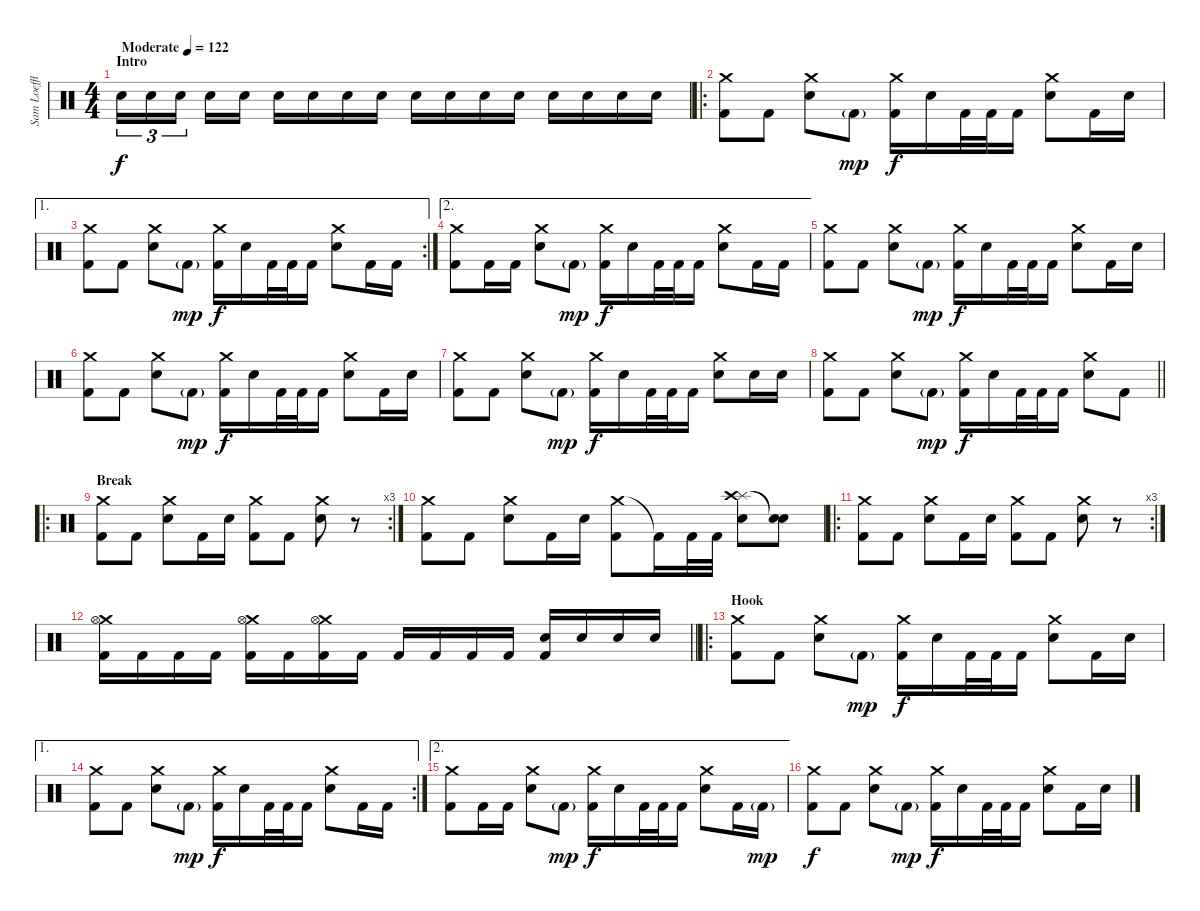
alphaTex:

\track ("Sam Loeffler- Drums" "Sam Loeffl") {instrument percussion}
\staff {score}
\articulation defaults
\ts (4 4)
\section ("" "Intro")
\tempo (122 "Moderate")
\clef neutral
\ks c "Electric Snare (hit)".16{tu (3 2) dy f} "Electric Snare (hit)".16{tu (3 2)} "Electric Snare (hit)".16{tu (3 2) beam splitsecondary} "Electric Snare (hit)".16 "Electric Snare (hit)".16 "Electric Snare (hit)".16 "Electric Snare (hit)".16 "Electric Snare (hit)".16 "Electric Snare (hit)".16 "Electric Snare (hit)".16 "Electric Snare (hit)".16 "Electric Snare (hit)".16 "Electric Snare (hit)".16 "Electric Snare (hit)".16 "Electric Snare (hit)".16 "Electric Snare (hit)".16 "Electric Snare (hit)".16
|
\ro
("Crash medium (hit)" "Kick (hit) 2").8 "Kick (hit) 2".8 ("Crash medium (hit)" "Electric Snare (hit)").8 "Kick (hit) 2"{g}.8{dy mp} ("Crash medium (hit)" "Kick (hit) 2").16{dy f} "Electric Snare (hit)".16 "Kick (hit) 2".32 "Kick (hit) 2".32 "Kick (hit) 2".16 ("Crash medium (hit)" "Electric Snare (hit)").8 "Kick (hit) 2".16 "Electric Snare (hit)".16 |
\ae 1
\rc 2
("Crash medium (hit)" "Kick (hit) 2").8 "Kick (hit) 2".8 ("Crash medium (hit)" "Electric Snare (hit)").8 "Kick (hit) 2"{g}.8{dy mp} ("Crash medium (hit)" "Kick (hit) 2").16{dy f} "Electric Snare (hit)".16 "Kick (hit) 2".32 "Kick (hit) 2".32 "Kick (hit) 2".16 ("Crash medium (hit)" "Electric Snare (hit)").8 "Kick (hit) 2".16 "Kick (hit) 2".16 |
\ae 2
("Crash medium (hit)" "Kick (hit) 2").8 "Kick (hit) 2".16 "Kick (hit) 2".16 ("Crash medium (hit)" "Electric Snare (hit)").8 "Kick (hit) 2"{g}.8{dy mp} ("Crash medium (hit)" "Kick (hit) 2").16{dy f} "Electric Snare (hit)".16 "Kick (hit) 2".32 "Kick (hit) 2".32 "Kick (hit) 2".16 ("Crash medium (hit)" "Electric Snare (hit)").8 "Kick (hit) 2".16 "Kick (hit) 2".16 |
("Crash medium (hit)" "Kick (hit) 2").8 "Kick (hit) 2".8 ("Crash medium (hit)" "Electric Snare (hit)").8 "Kick (hit) 2"{g}.8{dy mp} ("Crash medium (hit)" "Kick (hit) 2").16{dy f} "Electric Snare (hit)".16 "Kick (hit) 2".32 "Kick (hit) 2".32 "Kick (hit) 2".16 ("Crash medium (hit)" "Electric Snare (hit)").8 "Kick (hit) 2".16 "Electric Snare (hit)".16 |
("Crash medium (hit)" "Kick (hit) 2").8 "Kick (hit) 2".8 ("Crash medium (hit)" "Electric Snare (hit)").8 "Kick (hit) 2"{g}.8{dy mp} ("Crash medium (hit)" "Kick (hit) 2").16{dy f} "Electric Snare (hit)".16 "Kick (hit) 2".32 "Kick (hit) 2".32 "Kick (hit) 2".16 ("Crash medium (hit)" "Electric Snare (hit)").8 "Kick (hit) 2".16 "Electric Snare (hit)".16 |
("Crash medium (hit)" "Kick (hit) 2").8 "Kick (hit) 2".8 ("Crash medium (hit)" "Electric Snare (hit)").8 "Kick (hit) 2"{g}.8{dy mp} ("Crash medium (hit)" "Kick (hit) 2").16{dy f} "Electric Snare (hit)".16 "Kick (hit) 2".32 "Kick (hit) 2".32 "Kick (hit) 2".16 ("Crash medium (hit)" "Electric Snare (hit)").8 "Electric Snare (hit)".16 "Electric Snare (hit)".16 |
\barLineRight lightlight
("Crash medium (hit)" "Kick (hit) 2").8 "Kick (hit) 2".8 ("Crash medium (hit)" "Electric Snare (hit)").8 "Kick (hit) 2"{g}.8{dy mp} ("Crash medium (hit)" "Kick (hit) 2").16{dy f} "Electric Snare (hit)".16 "Kick (hit) 2".32 "Kick (hit) 2".32 "Kick (hit) 2".16 ("Crash medium (hit)" "Electric Snare (hit)").8 "Kick (hit) 2".8 |
\ro
\rc 3
\section ("" "Break")
("Crash medium (hit)" "Kick (hit) 2").8 "Kick (hit) 2".8 ("Crash medium (hit)" "Electric Snare (hit)").8 "Kick (hit) 2".16 "Electric Snare (hit)".16 ("Crash medium (hit)" "Kick (hit) 2").8 "Kick (hit) 2".8 ("Crash medium (hit)" "Electric Snare (hit)").8 r.8 |
("Crash medium (hit)" "Kick (hit) 2").8 "Kick (hit) 2".8 ("Crash medium (hit)" "Electric Snare (hit)").8 "Kick (hit) 2".16 "Electric Snare (hit)".16 ("Crash medium (hit)" "Kick (hit) 2").8 "Kick (hit) 2"{t}.16 "Kick (hit) 2".32 "Kick (hit) 2".32 ("Splash (hit)" "Crash high (hit)" "Electric Snare (hit)").8 ("Snare (hit)"{t} "Snare (hit)"{t}).8 |
\ro
\rc 3
("Crash medium (hit)" "Kick (hit) 2").8 "Kick (hit) 2".8 ("Crash medium (hit)" "Electric Snare (hit)").8 "Kick (hit) 2".16 "Electric Snare (hit)".16 ("Crash medium (hit)" "Kick (hit) 2").8 "Kick (hit) 2".8 ("Crash medium (hit)" "Electric Snare (hit)").8 r.8 |
\barLineRight lightlight
("Crash medium (hit)" "Hi-Hat (open)" "Kick (hit) 2").16 "Kick (hit) 2".16 "Kick (hit) 2".16 "Kick (hit) 2".16 ("Crash medium (hit)" "Hi-Hat (open)" "Kick (hit) 2").16 "Kick (hit) 2".16 ("Crash medium (hit)" "Hi-Hat (open)" "Kick (hit) 2").16 "Kick (hit) 2".16 "Kick (hit) 2".16 "Kick (hit) 2".16 "Kick (hit) 2".16 "Kick (hit) 2".16 ("Electric Snare (hit)" "Kick (hit) 2").16 "Electric Snare (hit)".16 "Electric Snare (hit)".16 "Electric Snare (hit)".16 |
\ro
\section ("" "Hook")
("Crash medium (hit)" "Kick (hit) 2").8 "Kick (hit) 2".8 ("Crash medium (hit)" "Electric Snare (hit)").8 "Kick (hit) 2"{g}.8{dy mp} ("Crash medium (hit)" "Kick (hit) 2").16{dy f} "Electric Snare (hit)".16 "Kick (hit) 2".32 "Kick (hit) 2".32 "Kick (hit) 2".16 ("Crash medium (hit)" "Electric Snare (hit)").8 "Kick (hit) 2".16 "Electric Snare (hit)".16 |
\ae 1
\rc 2
("Crash medium (hit)" "Kick (hit) 2").8 "Kick (hit) 2".8 ("Crash medium (hit)" "Electric Snare (hit)").8 "Kick (hit) 2"{g}.8{dy mp} ("Crash medium (hit)" "Kick (hit) 2").16{dy f} "Electric Snare (hit)".16 "Kick (hit) 2".32 "Kick (hit) 2".32 "Kick (hit) 2".16 ("Crash medium (hit)" "Electric Snare (hit)").8 "Kick (hit) 2".16 "Kick (hit) 2".16 |
\ae 2
("Crash medium (hit)" "Kick (hit) 2").8 "Kick (hit) 2".16 "Kick (hit) 2".16 ("Crash medium (hit)" "Electric Snare (hit)").8 "Kick (hit) 2"{g}.8{dy mp} ("Crash medium (hit)" "Kick (hit) 2").16{dy f} "Electric Snare (hit)".16 "Kick (hit) 2".32 "Kick (hit) 2".32 "Kick (hit) 2".16 ("Crash medium (hit)" "Electric Snare (hit)").8 "Kick (hit) 2".16 "Kick (hit) 2"{g}.16{dy mp} |
("Crash medium (hit)" "Kick (hit) 2").8{dy f} "Kick (hit) 2".8 ("Crash medium (hit)" "Electric Snare (hit)").8 "Kick (hit) 2"{g}.8{dy mp} ("Crash medium (hit)" "Kick (hit) 2").16{dy f} "Electric Snare (hit)".16 "Kick (hit) 2".32 "Kick (hit) 2".32 "Kick (hit) 2".16 ("Crash medium (hit)" "Electric Snare (hit)").8 "Kick (hit) 2".16 "Electric Snare (hit)".16
